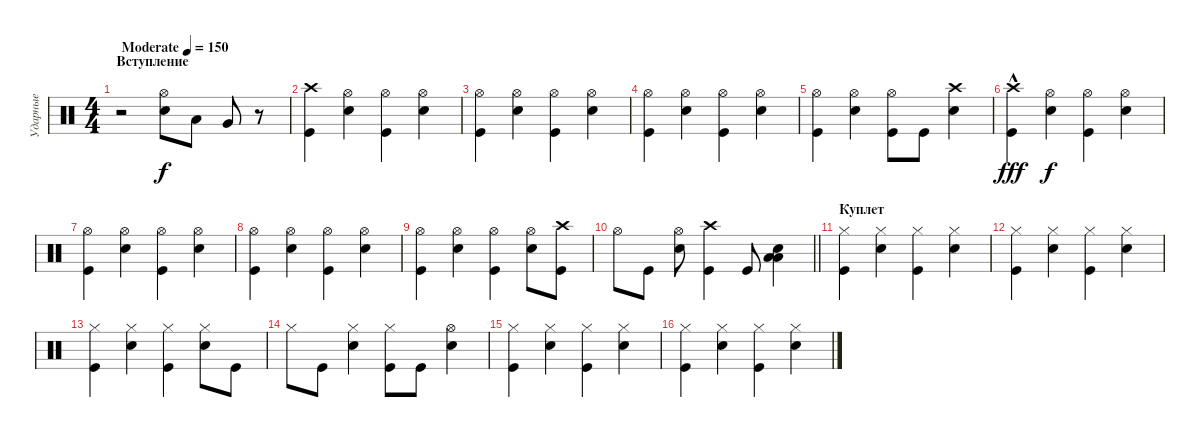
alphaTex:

\track ("Ударные" "Ударные") {instrument percussion}
\staff {score}
\articulation defaults
\ts (4 4)
\section ("" "Вступление")
\tempo (150 "Moderate")
\clef neutral
\ks c
r.2{dy f} ("Snare (hit) 2" "Hi-Hat (open)").8 "Low Tom (hit)".8 "Very Low Tom (hit)".8 r.8 |
("Crash high (hit)" "Kick (hit)").4 ("Hi-Hat (open)" "Snare (hit) 2").4 ("Hi-Hat (open)" "Kick (hit)").4 ("Hi-Hat (open)" "Snare (hit) 2").4 |
("Hi-Hat (open)" "Kick (hit)").4 ("Hi-Hat (open)" "Snare (hit) 2").4 ("Hi-Hat (open)" "Kick (hit)").4 ("Hi-Hat (open)" "Snare (hit) 2").4 |
("Hi-Hat (open)" "Kick (hit)").4 ("Hi-Hat (open)" "Snare (hit) 2").4 ("Hi-Hat (open)" "Kick (hit)").4 ("Hi-Hat (open)" "Snare (hit) 2").4 |
("Hi-Hat (open)" "Kick (hit)").4 ("Hi-Hat (open)" "Snare (hit) 2").4 ("Hi-Hat (open)" "Kick (hit)").8 "Kick (hit)".8 ("Crash high (hit)" "Snare (hit) 2").4 |
("Crash high (hit)"{hac} "Kick (hit)").4{dy fff} ("Hi-Hat (open)" "Snare (hit) 2").4{dy f} ("Hi-Hat (open)" "Kick (hit)").4 ("Hi-Hat (open)" "Snare (hit) 2").4 |
("Hi-Hat (open)" "Kick (hit)").4 ("Hi-Hat (open)" "Snare (hit) 2").4 ("Hi-Hat (open)" "Kick (hit)").4 ("Hi-Hat (open)" "Snare (hit) 2").4 |
("Hi-Hat (open)" "Kick (hit)").4 ("Hi-Hat (open)" "Snare (hit) 2").4 ("Hi-Hat (open)" "Kick (hit)").4 ("Hi-Hat (open)" "Snare (hit) 2").4 |
("Hi-Hat (open)" "Kick (hit)").4 ("Hi-Hat (open)" "Snare (hit) 2").4 ("Hi-Hat (open)" "Kick (hit)").4 ("Hi-Hat (open)" "Snare (hit) 2").8 ("Crash high (hit)" "Kick (hit)").8 |
\barLineRight lightlight "Hi-Hat (open)".8 "Kick (hit)".8
("Hi-Hat (open)" "Snare (hit) 2").8 ("Crash high (hit)" "Kick (hit)").4 "Kick (hit)".8 ("Low Tom (hit)" "Low Tom (hit)" "Snare (hit) 2").4 |
\section ("" "Куплет")
("Hi-Hat (closed)" "Kick (hit)").4 ("Hi-Hat (closed)" "Snare (hit) 2").4 ("Hi-Hat (closed)" "Kick (hit)").4 ("Hi-Hat (closed)" "Snare (hit) 2").4 |
("Hi-Hat (closed)" "Kick (hit)").4 ("Hi-Hat (closed)" "Snare (hit) 2").4 ("Hi-Hat (closed)" "Kick (hit)").4 ("Hi-Hat (closed)" "Snare (hit) 2").4 |
("Hi-Hat (closed)" "Kick (hit)").4 ("Hi-Hat (closed)" "Snare (hit) 2").4 ("Hi-Hat (closed)" "Kick (hit)").4 ("Hi-Hat (closed)" "Snare (hit) 2").8 "Kick (hit)".8 |
"Hi-Hat (closed)".8 "Kick (hit)".8 ("Hi-Hat (closed)" "Snare (hit) 2").4 ("Hi-Hat (closed)" "Kick (hit)").8 "Kick (hit)".8 ("Hi-Hat (open)" "Snare (hit) 2").4 |
("Hi-Hat (closed)" "Kick (hit)").4 ("Hi-Hat (closed)" "Snare (hit) 2").4 ("Hi-Hat (closed)" "Kick (hit)").4 ("Hi-Hat (closed)" "Snare (hit) 2").4 |
("Hi-Hat (closed)" "Kick (hit)").4 ("Hi-Hat (closed)" "Snare (hit) 2").4 ("Hi-Hat (closed)" "Kick (hit)").4 ("Hi-Hat (closed)" "Snare (hit) 2").4
